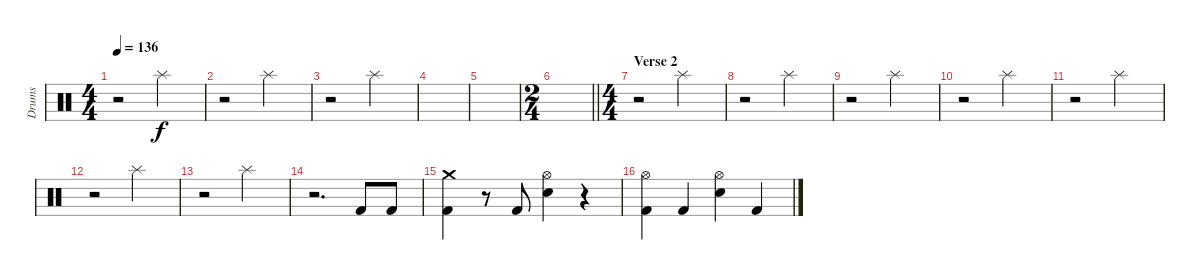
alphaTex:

\track ("Drums" "Drums") {instrument percussion}
\staff {score}
\articulation defaults
\ts (4 4)
\tempo 136
\clef neutral
\ks c
r.2{dy f} "Splash (hit)".2 |
r.2 "Splash (hit)".2 |
r.2 "Splash (hit)".2 |
|
|
\ts (2 4)
\barLineRight lightlight
|
\ts (4 4)
\section ("" "Verse 2")
r.2 "Splash (hit)".2 |
r.2 "Splash (hit)".2 |
r.2 "Splash (hit)".2 |
r.2 "Splash (hit)".2 |
r.2 "Splash (hit)".2 |
r.2 "Splash (hit)".2 |
r.2 "Splash (hit)".2 |
r.2{d} "Kick (hit) 2".8 "Kick (hit) 2".8 |
("Crash medium (hit)" "Kick (hit) 2").4 r.8 "Kick (hit) 2".8 ("Hi-Hat (open)" "Snare (hit) 2").4 r.4 |
("Hi-Hat (open)" "Kick (hit) 2").4 "Kick (hit) 2".4 ("Hi-Hat (open)" "Snare (hit) 2").4 "Kick (hit) 2".4
